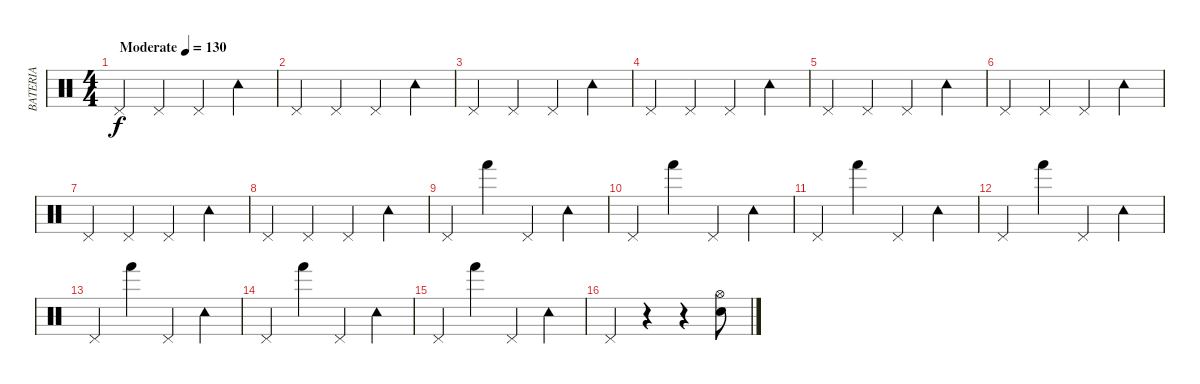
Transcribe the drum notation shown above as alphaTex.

\track ("BATERIA" "BATERIA") {mute instrument percussion}
\staff {score}
\articulation defaults
\ts (4 4)
\tempo (130 "Moderate")
\clef neutral
\ks c "Pedal Hi-Hat (hit)".4{dy f} "Pedal Hi-Hat (hit)".4 "Pedal Hi-Hat (hit)".4 "Tambourine (hit)".4
|
"Pedal Hi-Hat (hit)".4 "Pedal Hi-Hat (hit)".4 "Pedal Hi-Hat (hit)".4 "Tambourine (hit)".4 |
"Pedal Hi-Hat (hit)".4 "Pedal Hi-Hat (hit)".4 "Pedal Hi-Hat (hit)".4 "Tambourine (hit)".4 |
"Pedal Hi-Hat (hit)".4 "Pedal Hi-Hat (hit)".4 "Pedal Hi-Hat (hit)".4 "Tambourine (hit)".4 |
"Pedal Hi-Hat (hit)".4 "Pedal Hi-Hat (hit)".4 "Pedal Hi-Hat (hit)".4 "Tambourine (hit)".4 |
"Pedal Hi-Hat (hit)".4 "Pedal Hi-Hat (hit)".4 "Pedal Hi-Hat (hit)".4 "Tambourine (hit)".4 |
"Pedal Hi-Hat (hit)".4 "Pedal Hi-Hat (hit)".4 "Pedal Hi-Hat (hit)".4 "Tambourine (hit)".4 |
"Pedal Hi-Hat (hit)".4 "Pedal Hi-Hat (hit)".4 "Pedal Hi-Hat (hit)".4 "Tambourine (hit)".4 |
"Pedal Hi-Hat (hit)".4 "Hand (hit)".4 "Pedal Hi-Hat (hit)".4 "Tambourine (hit)".4 |
"Pedal Hi-Hat (hit)".4 "Hand (hit)".4 "Pedal Hi-Hat (hit)".4 "Tambourine (hit)".4 |
"Pedal Hi-Hat (hit)".4 "Hand (hit)".4 "Pedal Hi-Hat (hit)".4 "Tambourine (hit)".4 |
"Pedal Hi-Hat (hit)".4 "Hand (hit)".4 "Pedal Hi-Hat (hit)".4 "Tambourine (hit)".4 |
"Pedal Hi-Hat (hit)".4 "Hand (hit)".4 "Pedal Hi-Hat (hit)".4 "Tambourine (hit)".4 |
"Pedal Hi-Hat (hit)".4 "Hand (hit)".4 "Pedal Hi-Hat (hit)".4 "Tambourine (hit)".4 |
"Pedal Hi-Hat (hit)".4 "Hand (hit)".4 "Pedal Hi-Hat (hit)".4 "Tambourine (hit)".4 |
"Pedal Hi-Hat (hit)".4 r.4 r.4 ("Snare (hit) 2" "Hi-Hat (open)").8
